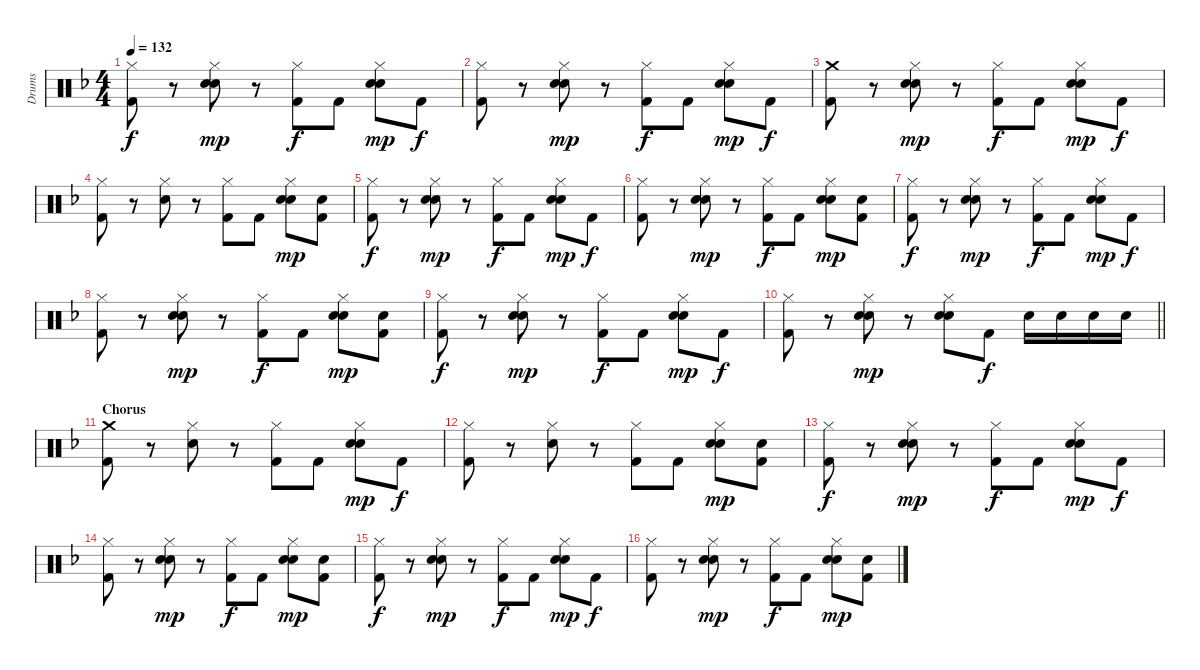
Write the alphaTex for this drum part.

\track ("Drums" "Drums") {instrument percussion}
\staff {score}
\articulation defaults
\ts (4 4)
\tempo 132
\clef neutral
\ks f
("Hi-Hat (closed)" "Kick (hit) 2").8{dy f} r.8 ("Hi-Hat (closed)" "Hand Clap (hit)" "Snare (hit) 2").8{dy mp} r.8 ("Hi-Hat (closed)" "Kick (hit) 2").8{dy f} "Kick (hit) 2".8 ("Hi-Hat (closed)" "Hand Clap (hit)" "Snare (hit) 2").8{dy mp} "Kick (hit) 2".8{dy f} |
("Hi-Hat (closed)" "Kick (hit) 2").8 r.8 ("Hi-Hat (closed)" "Hand Clap (hit)" "Snare (hit) 2").8{dy mp} r.8 ("Hi-Hat (closed)" "Kick (hit) 2").8{dy f} "Kick (hit) 2".8 ("Hi-Hat (closed)" "Hand Clap (hit)" "Snare (hit) 2").8{dy mp} "Kick (hit) 2".8{dy f} |
("Crash medium (hit)" "Kick (hit) 2").8 r.8 ("Hi-Hat (closed)" "Hand Clap (hit)" "Snare (hit) 2").8{dy mp} r.8 ("Hi-Hat (closed)" "Kick (hit) 2").8{dy f} "Kick (hit) 2".8 ("Hi-Hat (closed)" "Hand Clap (hit)" "Snare (hit) 2").8{dy mp} "Kick (hit) 2".8{dy f} |
("Hi-Hat (closed)" "Kick (hit) 2").8 r.8 ("Hi-Hat (closed)" "Snare (hit) 2").8 r.8 ("Hi-Hat (closed)" "Kick (hit) 2").8 "Kick (hit) 2".8 ("Hi-Hat (closed)" "Hand Clap (hit)" "Snare (hit) 2").8{dy mp} ("Hand Clap (hit)" "Kick (hit) 2").8 |
("Hi-Hat (closed)" "Kick (hit) 2").8{dy f} r.8 ("Hi-Hat (closed)" "Hand Clap (hit)" "Snare (hit) 2").8{dy mp} r.8 ("Hi-Hat (closed)" "Kick (hit) 2").8{dy f} "Kick (hit) 2".8 ("Hi-Hat (closed)" "Hand Clap (hit)" "Snare (hit) 2").8{dy mp} "Kick (hit) 2".8{dy f} |
("Hi-Hat (closed)" "Kick (hit) 2").8 r.8 ("Hi-Hat (closed)" "Hand Clap (hit)" "Snare (hit) 2").8{dy mp} r.8 ("Hi-Hat (closed)" "Kick (hit) 2").8{dy f} "Kick (hit) 2".8 ("Hi-Hat (closed)" "Hand Clap (hit)" "Snare (hit) 2").8{dy mp} ("Hand Clap (hit)" "Kick (hit) 2").8 |
("Hi-Hat (closed)" "Kick (hit) 2").8{dy f} r.8 ("Hi-Hat (closed)" "Hand Clap (hit)" "Snare (hit) 2").8{dy mp} r.8 ("Hi-Hat (closed)" "Kick (hit) 2").8{dy f} "Kick (hit) 2".8 ("Hi-Hat (closed)" "Hand Clap (hit)" "Snare (hit) 2").8{dy mp} "Kick (hit) 2".8{dy f} |
("Hi-Hat (closed)" "Kick (hit) 2").8 r.8 ("Hi-Hat (closed)" "Hand Clap (hit)" "Snare (hit) 2").8{dy mp} r.8 ("Hi-Hat (closed)" "Kick (hit) 2").8{dy f} "Kick (hit) 2".8 ("Hi-Hat (closed)" "Hand Clap (hit)" "Snare (hit) 2").8{dy mp} ("Hand Clap (hit)" "Kick (hit) 2").8 |
("Hi-Hat (closed)" "Kick (hit) 2").8{dy f} r.8 ("Hi-Hat (closed)" "Hand Clap (hit)" "Snare (hit) 2").8{dy mp} r.8 ("Hi-Hat (closed)" "Kick (hit) 2").8{dy f} "Kick (hit) 2".8 ("Hi-Hat (closed)" "Hand Clap (hit)" "Snare (hit) 2").8{dy mp} "Kick (hit) 2".8{dy f} |
\barLineRight lightlight
("Hi-Hat (closed)" "Kick (hit) 2").8 r.8 ("Hi-Hat (closed)" "Hand Clap (hit)" "Snare (hit) 2").8{dy mp} r.8 ("Hi-Hat (closed)" "Hand Clap (hit)" "Snare (hit) 2").8 "Kick (hit) 2".8{dy f} "Snare (hit) 2".16 "Snare (hit) 2".16 "Snare (hit) 2".16 "Snare (hit) 2".16 |
\section ("" "Chorus")
("Crash medium (hit)" "Kick (hit) 2").8 r.8 ("Hi-Hat (closed)" "Snare (hit) 2").8 r.8 ("Hi-Hat (closed)" "Kick (hit) 2").8 "Kick (hit) 2".8 ("Hi-Hat (closed)" "Hand Clap (hit)" "Snare (hit) 2").8{dy mp} "Kick (hit) 2".8{dy f} |
("Hi-Hat (closed)" "Kick (hit) 2").8 r.8 ("Hi-Hat (closed)" "Snare (hit) 2").8 r.8 ("Hi-Hat (closed)" "Kick (hit) 2").8 "Kick (hit) 2".8 ("Hi-Hat (closed)" "Hand Clap (hit)" "Snare (hit) 2").8{dy mp} ("Hand Clap (hit)" "Kick (hit) 2").8 |
("Hi-Hat (closed)" "Kick (hit) 2").8{dy f} r.8 ("Hi-Hat (closed)" "Hand Clap (hit)" "Snare (hit) 2").8{dy mp} r.8 ("Hi-Hat (closed)" "Kick (hit) 2").8{dy f} "Kick (hit) 2".8 ("Hi-Hat (closed)" "Hand Clap (hit)" "Snare (hit) 2").8{dy mp} "Kick (hit) 2".8{dy f} |
("Hi-Hat (closed)" "Kick (hit) 2").8 r.8 ("Hi-Hat (closed)" "Hand Clap (hit)" "Snare (hit) 2").8{dy mp} r.8 ("Hi-Hat (closed)" "Kick (hit) 2").8{dy f} "Kick (hit) 2".8 ("Hi-Hat (closed)" "Hand Clap (hit)" "Snare (hit) 2").8{dy mp} ("Hand Clap (hit)" "Kick (hit) 2").8 |
("Hi-Hat (closed)" "Kick (hit) 2").8{dy f} r.8 ("Hi-Hat (closed)" "Hand Clap (hit)" "Snare (hit) 2").8{dy mp} r.8 ("Hi-Hat (closed)" "Kick (hit) 2").8{dy f} "Kick (hit) 2".8 ("Hi-Hat (closed)" "Hand Clap (hit)" "Snare (hit) 2").8{dy mp} "Kick (hit) 2".8{dy f} |
("Hi-Hat (closed)" "Kick (hit) 2").8 r.8 ("Hi-Hat (closed)" "Hand Clap (hit)" "Snare (hit) 2").8{dy mp} r.8 ("Hi-Hat (closed)" "Kick (hit) 2").8{dy f} "Kick (hit) 2".8 ("Hi-Hat (closed)" "Hand Clap (hit)" "Snare (hit) 2").8{dy mp} ("Hand Clap (hit)" "Kick (hit) 2").8
